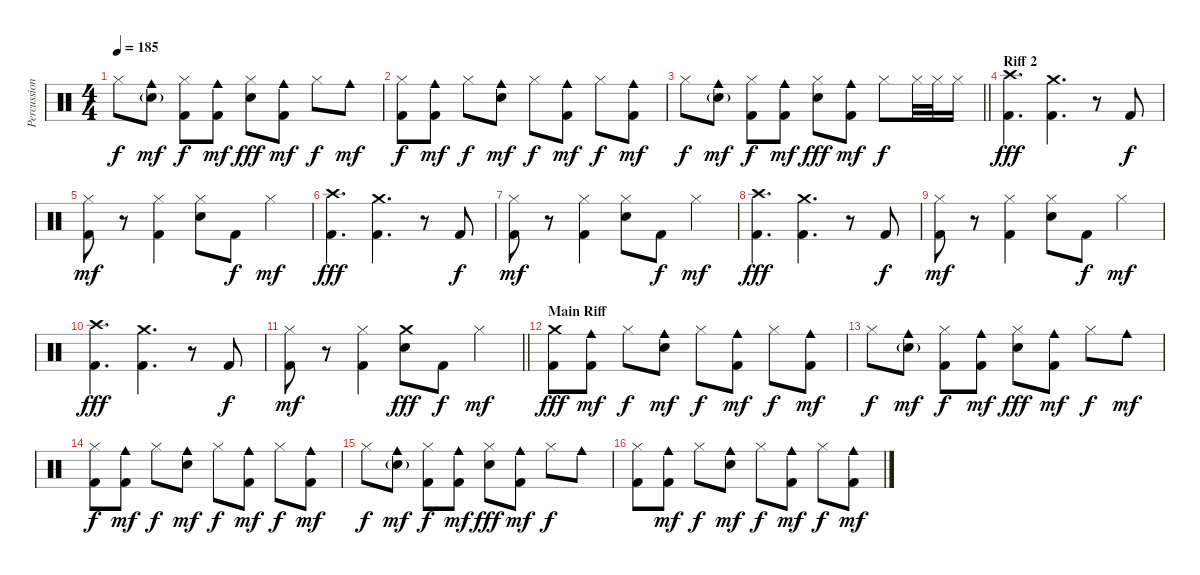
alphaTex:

\track ("Percussions" "Percussion") {instrument percussion}
\staff {score}
\articulation defaults
\ts (4 4)
\tempo 185
\clef neutral
\ks c "Hi-Hat (closed)".8{dy f}
("Electric Snare (hit)"{g} "Cowbell medium (hit)").8{dy mf} ("Kick (hit) 2" "Hi-Hat (closed)").8{dy f} ("Kick (hit) 2" "Cowbell medium (hit)").8{dy mf} ("Electric Snare (hit)" "Hi-Hat (closed)").8{dy fff} ("Kick (hit) 2" "Cowbell medium (hit)").8{dy mf} "Hi-Hat (closed)".8{dy f} "Cowbell medium (hit)".8{dy mf} |
("Kick (hit) 2" "Hi-Hat (closed)").8{dy f} ("Kick (hit) 2" "Cowbell medium (hit)").8{dy mf} "Hi-Hat (closed)".8{dy f} ("Electric Snare (hit)" "Cowbell medium (hit)").8{dy mf} "Hi-Hat (closed)".8{dy f} ("Kick (hit) 2" "Cowbell medium (hit)").8{dy mf} "Hi-Hat (closed)".8{dy f} ("Kick (hit) 2" "Cowbell medium (hit)").8{dy mf} |
\barLineRight lightlight "Hi-Hat (closed)".8{dy f}
("Electric Snare (hit)"{g} "Cowbell medium (hit)").8{dy mf} ("Kick (hit) 2" "Hi-Hat (closed)").8{dy f} ("Kick (hit) 2" "Cowbell medium (hit)").8{dy mf} ("Electric Snare (hit)" "Hi-Hat (closed)").8{dy fff} ("Kick (hit) 2" "Cowbell medium (hit)").8{dy mf} "Hi-Hat (closed)".8{dy f} "Hi-Hat (closed)".32 "Hi-Hat (closed)".32 "Hi-Hat (closed)".16 |
\section ("" "Riff 2")
("Crash high (hit)" "Kick (hit) 2").4{d dy fff} ("Crash medium (hit)" "Kick (hit) 2").4{d} r.8 "Kick (hit) 2".8{dy f} |
("Kick (hit) 2" "Hi-Hat (closed)").8{dy mf} r.8 ("Kick (hit) 2" "Hi-Hat (closed)").4 ("Electric Snare (hit)" "Hi-Hat (closed)").8 "Kick (hit) 2".8{dy f} "Hi-Hat (closed)".4{dy mf} |
("Crash high (hit)" "Kick (hit) 2").4{d dy fff} ("Crash medium (hit)" "Kick (hit) 2").4{d} r.8 "Kick (hit) 2".8{dy f} |
("Kick (hit) 2" "Hi-Hat (closed)").8{dy mf} r.8 ("Kick (hit) 2" "Hi-Hat (closed)").4 ("Electric Snare (hit)" "Hi-Hat (closed)").8 "Kick (hit) 2".8{dy f} "Hi-Hat (closed)".4{dy mf} |
("Crash high (hit)" "Kick (hit) 2").4{d dy fff} ("Crash medium (hit)" "Kick (hit) 2").4{d} r.8 "Kick (hit) 2".8{dy f} |
("Kick (hit) 2" "Hi-Hat (closed)").8{dy mf} r.8 ("Kick (hit) 2" "Hi-Hat (closed)").4 ("Electric Snare (hit)" "Hi-Hat (closed)").8 "Kick (hit) 2".8{dy f} "Hi-Hat (closed)".4{dy mf} |
("Crash high (hit)" "Kick (hit) 2").4{d dy fff} ("Crash medium (hit)" "Kick (hit) 2").4{d} r.8 "Kick (hit) 2".8{dy f} |
\barLineRight lightlight
("Kick (hit) 2" "Hi-Hat (closed)").8{dy mf} r.8 ("Kick (hit) 2" "Hi-Hat (closed)").4 ("Crash medium (hit)" "Electric Snare (hit)").8{dy fff} "Kick (hit) 2".8{dy f} "Hi-Hat (closed)".4{dy mf} |
\section ("" "Main Riff")
("Crash medium (hit)" "Kick (hit) 2").8{dy fff} ("Kick (hit) 2" "Cowbell medium (hit)").8{dy mf} "Hi-Hat (closed)".8{dy f} ("Electric Snare (hit)" "Cowbell medium (hit)").8{dy mf} "Hi-Hat (closed)".8{dy f} ("Kick (hit) 2" "Cowbell medium (hit)").8{dy mf} "Hi-Hat (closed)".8{dy f} ("Kick (hit) 2" "Cowbell medium (hit)").8{dy mf} |
"Hi-Hat (closed)".8{dy f} ("Electric Snare (hit)"{g} "Cowbell medium (hit)").8{dy mf} ("Kick (hit) 2" "Hi-Hat (closed)").8{dy f} ("Kick (hit) 2" "Cowbell medium (hit)").8{dy mf} ("Electric Snare (hit)" "Hi-Hat (closed)").8{dy fff} ("Kick (hit) 2" "Cowbell medium (hit)").8{dy mf} "Hi-Hat (closed)".8{dy f} "Cowbell medium (hit)".8{dy mf} |
("Kick (hit) 2" "Hi-Hat (closed)").8{dy f} ("Kick (hit) 2" "Cowbell medium (hit)").8{dy mf} "Hi-Hat (closed)".8{dy f} ("Electric Snare (hit)" "Cowbell medium (hit)").8{dy mf} "Hi-Hat (closed)".8{dy f} ("Kick (hit) 2" "Cowbell medium (hit)").8{dy mf} "Hi-Hat (closed)".8{dy f} ("Kick (hit) 2" "Cowbell medium (hit)").8{dy mf} |
"Hi-Hat (closed)".8{dy f} ("Electric Snare (hit)"{g} "Cowbell medium (hit)").8{dy mf} ("Kick (hit) 2" "Hi-Hat (closed)").8{dy f} ("Kick (hit) 2" "Cowbell medium (hit)").8{dy mf} ("Electric Snare (hit)" "Hi-Hat (closed)").8{dy fff} ("Kick (hit) 2" "Cowbell medium (hit)").8{dy mf} "Hi-Hat (closed)".8{dy f} "Cowbell medium (hit)".8 |
("Kick (hit) 2" "Hi-Hat (closed)").8 ("Kick (hit) 2" "Cowbell medium (hit)").8{dy mf} "Hi-Hat (closed)".8{dy f} ("Electric Snare (hit)" "Cowbell medium (hit)").8{dy mf} "Hi-Hat (closed)".8{dy f} ("Kick (hit) 2" "Cowbell medium (hit)").8{dy mf} "Hi-Hat (closed)".8{dy f} ("Kick (hit) 2" "Cowbell medium (hit)").8{dy mf}
